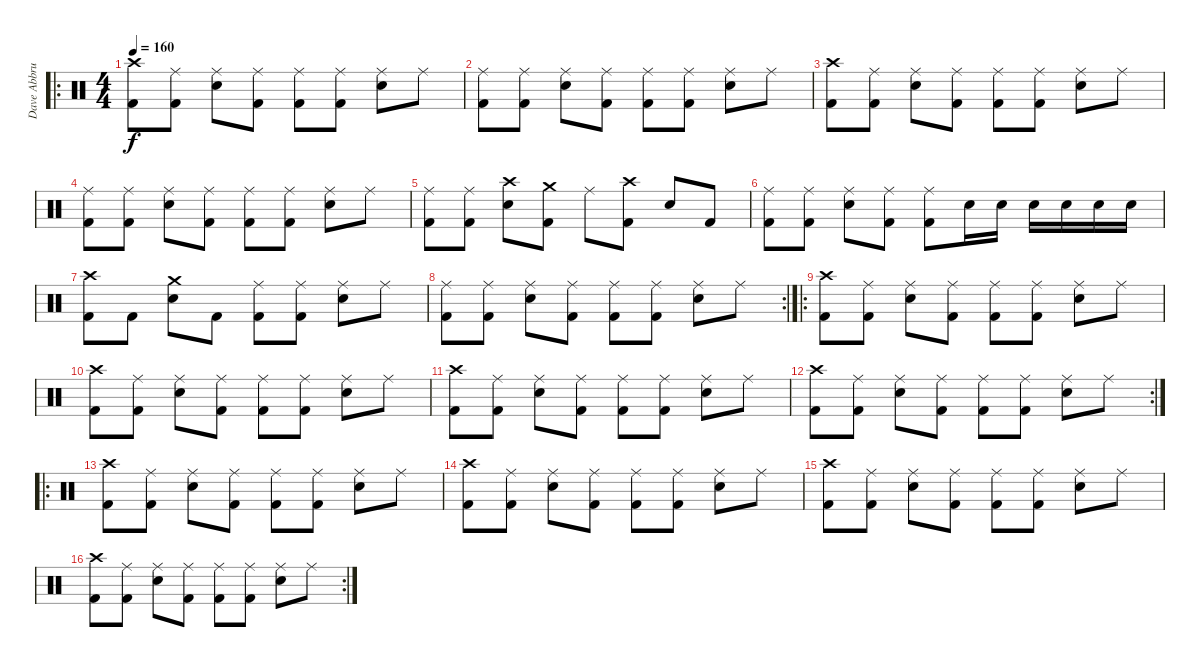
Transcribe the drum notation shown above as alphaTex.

\track ("Dave Abbruzzese" "Dave Abbru") {instrument percussion}
\staff {score}
\articulation defaults
\ro
\ts (4 4)
\tempo 160
\clef neutral
\ks c
("Crash high (hit)" "Kick (hit) 2").8{dy f} ("Ride (middle)" "Kick (hit) 2").8 ("Ride (middle)" "Snare (hit) 2").8 ("Ride (middle)" "Kick (hit) 2").8 ("Ride (middle)" "Kick (hit) 2").8 ("Ride (middle)" "Kick (hit) 2").8 ("Ride (middle)" "Snare (hit) 2").8 "Ride (middle)".8 |
("Ride (middle)" "Kick (hit) 2").8 ("Ride (middle)" "Kick (hit) 2").8 ("Ride (middle)" "Snare (hit) 2").8 ("Ride (middle)" "Kick (hit) 2").8 ("Ride (middle)" "Kick (hit) 2").8 ("Ride (middle)" "Kick (hit) 2").8 ("Ride (middle)" "Snare (hit) 2").8 "Ride (middle)".8 |
("Crash high (hit)" "Kick (hit) 2").8 ("Ride (middle)" "Kick (hit) 2").8 ("Ride (middle)" "Snare (hit) 2").8 ("Ride (middle)" "Kick (hit) 2").8 ("Ride (middle)" "Kick (hit) 2").8 ("Ride (middle)" "Kick (hit) 2").8 ("Ride (middle)" "Snare (hit) 2").8 "Ride (middle)".8 |
("Ride (middle)" "Kick (hit) 2").8 ("Ride (middle)" "Kick (hit) 2").8 ("Ride (middle)" "Snare (hit) 2").8 ("Ride (middle)" "Kick (hit) 2").8 ("Ride (middle)" "Kick (hit) 2").8 ("Ride (middle)" "Kick (hit) 2").8 ("Ride (middle)" "Snare (hit) 2").8 "Ride (middle)".8 |
("Ride (middle)" "Kick (hit) 2").8 ("Ride (middle)" "Kick (hit) 2").8 ("Crash high (hit)" "Snare (hit) 2").8 ("Crash medium (hit)" "Kick (hit) 2").8 "Ride (middle)".8 ("Crash high (hit)" "Kick (hit) 2").8 "Snare (hit) 2".8 "Kick (hit) 2".8 |
("Ride (middle)" "Kick (hit) 2").8 ("Ride (middle)" "Kick (hit) 2").8 ("Ride (middle)" "Snare (hit) 2").8 ("Ride (middle)" "Kick (hit) 2").8 ("Ride (middle)" "Kick (hit) 2").8 "Snare (hit) 2".16 "Snare (hit) 2".16 "Snare (hit) 2".16 "Snare (hit) 2".16 "Snare (hit) 2".16 "Snare (hit) 2".16 |
("Crash high (hit)" "Kick (hit) 2").8 "Kick (hit) 2".8 ("Crash medium (hit)" "Snare (hit) 2").8 "Kick (hit) 2".8 ("Ride (middle)" "Kick (hit) 2").8 ("Ride (middle)" "Kick (hit) 2").8 ("Ride (middle)" "Snare (hit) 2").8 "Ride (middle)".8 |
\rc 2
("Ride (middle)" "Kick (hit) 2").8 ("Ride (middle)" "Kick (hit) 2").8 ("Ride (middle)" "Snare (hit) 2").8 ("Ride (middle)" "Kick (hit) 2").8 ("Ride (middle)" "Kick (hit) 2").8 ("Ride (middle)" "Kick (hit) 2").8 ("Ride (middle)" "Snare (hit) 2").8 "Ride (middle)".8 |
\ro
("Crash high (hit)" "Kick (hit) 2").8 ("Ride (middle)" "Kick (hit) 2").8 ("Ride (middle)" "Snare (hit) 2").8 ("Ride (middle)" "Kick (hit) 2").8 ("Ride (middle)" "Kick (hit) 2").8 ("Ride (middle)" "Kick (hit) 2").8 ("Ride (middle)" "Snare (hit) 2").8 "Ride (middle)".8 |
("Crash high (hit)" "Kick (hit) 2").8 ("Ride (middle)" "Kick (hit) 2").8 ("Ride (middle)" "Snare (hit) 2").8 ("Ride (middle)" "Kick (hit) 2").8 ("Ride (middle)" "Kick (hit) 2").8 ("Ride (middle)" "Kick (hit) 2").8 ("Ride (middle)" "Snare (hit) 2").8 "Ride (middle)".8 |
("Crash high (hit)" "Kick (hit) 2").8 ("Ride (middle)" "Kick (hit) 2").8 ("Ride (middle)" "Snare (hit) 2").8 ("Ride (middle)" "Kick (hit) 2").8 ("Ride (middle)" "Kick (hit) 2").8 ("Ride (middle)" "Kick (hit) 2").8 ("Ride (middle)" "Snare (hit) 2").8 "Ride (middle)".8 |
\rc 2
("Crash high (hit)" "Kick (hit) 2").8 ("Ride (middle)" "Kick (hit) 2").8 ("Ride (middle)" "Snare (hit) 2").8 ("Ride (middle)" "Kick (hit) 2").8 ("Ride (middle)" "Kick (hit) 2").8 ("Ride (middle)" "Kick (hit) 2").8 ("Ride (middle)" "Snare (hit) 2").8 "Ride (middle)".8 |
\ro
("Crash high (hit)" "Kick (hit) 2").8 ("Ride (middle)" "Kick (hit) 2").8 ("Ride (middle)" "Snare (hit) 2").8 ("Ride (middle)" "Kick (hit) 2").8 ("Ride (middle)" "Kick (hit) 2").8 ("Ride (middle)" "Kick (hit) 2").8 ("Ride (middle)" "Snare (hit) 2").8 "Ride (middle)".8 |
("Crash high (hit)" "Kick (hit) 2").8 ("Ride (middle)" "Kick (hit) 2").8 ("Ride (middle)" "Snare (hit) 2").8 ("Ride (middle)" "Kick (hit) 2").8 ("Ride (middle)" "Kick (hit) 2").8 ("Ride (middle)" "Kick (hit) 2").8 ("Ride (middle)" "Snare (hit) 2").8 "Ride (middle)".8 |
("Crash high (hit)" "Kick (hit) 2").8 ("Ride (middle)" "Kick (hit) 2").8 ("Ride (middle)" "Snare (hit) 2").8 ("Ride (middle)" "Kick (hit) 2").8 ("Ride (middle)" "Kick (hit) 2").8 ("Ride (middle)" "Kick (hit) 2").8 ("Ride (middle)" "Snare (hit) 2").8 "Ride (middle)".8 |
\rc 2
("Crash high (hit)" "Kick (hit) 2").8 ("Ride (middle)" "Kick (hit) 2").8 ("Ride (middle)" "Snare (hit) 2").8 ("Ride (middle)" "Kick (hit) 2").8 ("Ride (middle)" "Kick (hit) 2").8 ("Ride (middle)" "Kick (hit) 2").8 ("Ride (middle)" "Snare (hit) 2").8 "Ride (middle)".8
